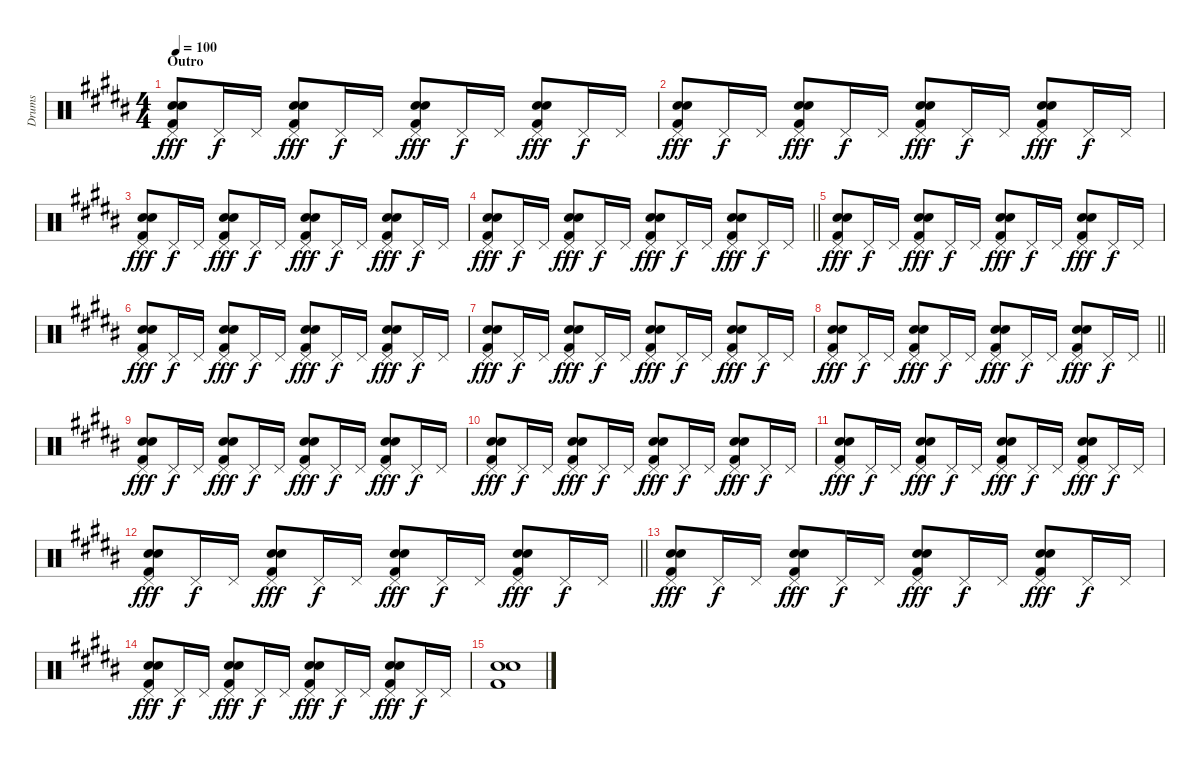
\track ("Drums" "Drums") {instrument percussion}
\staff {score}
\articulation defaults
\ts (4 4)
\section ("" "Outro")
\tempo 100
\clef neutral
\ks b
("Pedal Hi-Hat (hit)" "Snare (hit) 2" "Electric Snare (hit)" "Kick (hit) 2").8{dy fff} "Pedal Hi-Hat (hit)".16{dy f} "Pedal Hi-Hat (hit)".16 ("Pedal Hi-Hat (hit)" "Snare (hit) 2" "Electric Snare (hit)" "Kick (hit) 2").8{dy fff} "Pedal Hi-Hat (hit)".16{dy f} "Pedal Hi-Hat (hit)".16 ("Pedal Hi-Hat (hit)" "Snare (hit) 2" "Electric Snare (hit)" "Kick (hit) 2").8{dy fff} "Pedal Hi-Hat (hit)".16{dy f} "Pedal Hi-Hat (hit)".16 ("Pedal Hi-Hat (hit)" "Snare (hit) 2" "Electric Snare (hit)" "Kick (hit) 2").8{dy fff} "Pedal Hi-Hat (hit)".16{dy f} "Pedal Hi-Hat (hit)".16 |
("Pedal Hi-Hat (hit)" "Snare (hit) 2" "Electric Snare (hit)" "Kick (hit) 2").8{dy fff} "Pedal Hi-Hat (hit)".16{dy f} "Pedal Hi-Hat (hit)".16 ("Pedal Hi-Hat (hit)" "Snare (hit) 2" "Electric Snare (hit)" "Kick (hit) 2").8{dy fff} "Pedal Hi-Hat (hit)".16{dy f} "Pedal Hi-Hat (hit)".16 ("Pedal Hi-Hat (hit)" "Snare (hit) 2" "Electric Snare (hit)" "Kick (hit) 2").8{dy fff} "Pedal Hi-Hat (hit)".16{dy f} "Pedal Hi-Hat (hit)".16 ("Pedal Hi-Hat (hit)" "Snare (hit) 2" "Electric Snare (hit)" "Kick (hit) 2").8{dy fff} "Pedal Hi-Hat (hit)".16{dy f} "Pedal Hi-Hat (hit)".16 |
("Pedal Hi-Hat (hit)" "Snare (hit) 2" "Electric Snare (hit)" "Kick (hit) 2").8{dy fff} "Pedal Hi-Hat (hit)".16{dy f} "Pedal Hi-Hat (hit)".16 ("Pedal Hi-Hat (hit)" "Snare (hit) 2" "Electric Snare (hit)" "Kick (hit) 2").8{dy fff} "Pedal Hi-Hat (hit)".16{dy f} "Pedal Hi-Hat (hit)".16 ("Pedal Hi-Hat (hit)" "Snare (hit) 2" "Electric Snare (hit)" "Kick (hit) 2").8{dy fff} "Pedal Hi-Hat (hit)".16{dy f} "Pedal Hi-Hat (hit)".16 ("Pedal Hi-Hat (hit)" "Snare (hit) 2" "Electric Snare (hit)" "Kick (hit) 2").8{dy fff} "Pedal Hi-Hat (hit)".16{dy f} "Pedal Hi-Hat (hit)".16 |
\barLineRight lightlight
("Pedal Hi-Hat (hit)" "Snare (hit) 2" "Electric Snare (hit)" "Kick (hit) 2").8{dy fff} "Pedal Hi-Hat (hit)".16{dy f} "Pedal Hi-Hat (hit)".16 ("Pedal Hi-Hat (hit)" "Snare (hit) 2" "Electric Snare (hit)" "Kick (hit) 2").8{dy fff} "Pedal Hi-Hat (hit)".16{dy f} "Pedal Hi-Hat (hit)".16 ("Pedal Hi-Hat (hit)" "Snare (hit) 2" "Electric Snare (hit)" "Kick (hit) 2").8{dy fff} "Pedal Hi-Hat (hit)".16{dy f} "Pedal Hi-Hat (hit)".16 ("Pedal Hi-Hat (hit)" "Snare (hit) 2" "Electric Snare (hit)" "Kick (hit) 2").8{dy fff} "Pedal Hi-Hat (hit)".16{dy f} "Pedal Hi-Hat (hit)".16 |
("Pedal Hi-Hat (hit)" "Snare (hit) 2" "Electric Snare (hit)" "Kick (hit) 2").8{dy fff} "Pedal Hi-Hat (hit)".16{dy f} "Pedal Hi-Hat (hit)".16 ("Pedal Hi-Hat (hit)" "Snare (hit) 2" "Electric Snare (hit)" "Kick (hit) 2").8{dy fff} "Pedal Hi-Hat (hit)".16{dy f} "Pedal Hi-Hat (hit)".16 ("Pedal Hi-Hat (hit)" "Snare (hit) 2" "Electric Snare (hit)" "Kick (hit) 2").8{dy fff} "Pedal Hi-Hat (hit)".16{dy f} "Pedal Hi-Hat (hit)".16 ("Pedal Hi-Hat (hit)" "Snare (hit) 2" "Electric Snare (hit)" "Kick (hit) 2").8{dy fff} "Pedal Hi-Hat (hit)".16{dy f} "Pedal Hi-Hat (hit)".16 |
("Pedal Hi-Hat (hit)" "Snare (hit) 2" "Electric Snare (hit)" "Kick (hit) 2").8{dy fff} "Pedal Hi-Hat (hit)".16{dy f} "Pedal Hi-Hat (hit)".16 ("Pedal Hi-Hat (hit)" "Snare (hit) 2" "Electric Snare (hit)" "Kick (hit) 2").8{dy fff} "Pedal Hi-Hat (hit)".16{dy f} "Pedal Hi-Hat (hit)".16 ("Pedal Hi-Hat (hit)" "Snare (hit) 2" "Electric Snare (hit)" "Kick (hit) 2").8{dy fff} "Pedal Hi-Hat (hit)".16{dy f} "Pedal Hi-Hat (hit)".16 ("Pedal Hi-Hat (hit)" "Snare (hit) 2" "Electric Snare (hit)" "Kick (hit) 2").8{dy fff} "Pedal Hi-Hat (hit)".16{dy f} "Pedal Hi-Hat (hit)".16 |
("Pedal Hi-Hat (hit)" "Snare (hit) 2" "Electric Snare (hit)" "Kick (hit) 2").8{dy fff} "Pedal Hi-Hat (hit)".16{dy f} "Pedal Hi-Hat (hit)".16 ("Pedal Hi-Hat (hit)" "Snare (hit) 2" "Electric Snare (hit)" "Kick (hit) 2").8{dy fff} "Pedal Hi-Hat (hit)".16{dy f} "Pedal Hi-Hat (hit)".16 ("Pedal Hi-Hat (hit)" "Snare (hit) 2" "Electric Snare (hit)" "Kick (hit) 2").8{dy fff} "Pedal Hi-Hat (hit)".16{dy f} "Pedal Hi-Hat (hit)".16 ("Pedal Hi-Hat (hit)" "Snare (hit) 2" "Electric Snare (hit)" "Kick (hit) 2").8{dy fff} "Pedal Hi-Hat (hit)".16{dy f} "Pedal Hi-Hat (hit)".16 |
\barLineRight lightlight
("Pedal Hi-Hat (hit)" "Snare (hit) 2" "Electric Snare (hit)" "Kick (hit) 2").8{dy fff} "Pedal Hi-Hat (hit)".16{dy f} "Pedal Hi-Hat (hit)".16 ("Pedal Hi-Hat (hit)" "Snare (hit) 2" "Electric Snare (hit)" "Kick (hit) 2").8{dy fff} "Pedal Hi-Hat (hit)".16{dy f} "Pedal Hi-Hat (hit)".16 ("Pedal Hi-Hat (hit)" "Snare (hit) 2" "Electric Snare (hit)" "Kick (hit) 2").8{dy fff} "Pedal Hi-Hat (hit)".16{dy f} "Pedal Hi-Hat (hit)".16 ("Pedal Hi-Hat (hit)" "Snare (hit) 2" "Electric Snare (hit)" "Kick (hit) 2").8{dy fff} "Pedal Hi-Hat (hit)".16{dy f} "Pedal Hi-Hat (hit)".16 |
("Pedal Hi-Hat (hit)" "Snare (hit) 2" "Electric Snare (hit)" "Kick (hit) 2").8{dy fff} "Pedal Hi-Hat (hit)".16{dy f} "Pedal Hi-Hat (hit)".16 ("Pedal Hi-Hat (hit)" "Snare (hit) 2" "Electric Snare (hit)" "Kick (hit) 2").8{dy fff} "Pedal Hi-Hat (hit)".16{dy f} "Pedal Hi-Hat (hit)".16 ("Pedal Hi-Hat (hit)" "Snare (hit) 2" "Electric Snare (hit)" "Kick (hit) 2").8{dy fff} "Pedal Hi-Hat (hit)".16{dy f} "Pedal Hi-Hat (hit)".16 ("Pedal Hi-Hat (hit)" "Snare (hit) 2" "Electric Snare (hit)" "Kick (hit) 2").8{dy fff} "Pedal Hi-Hat (hit)".16{dy f} "Pedal Hi-Hat (hit)".16 |
("Pedal Hi-Hat (hit)" "Snare (hit) 2" "Electric Snare (hit)" "Kick (hit) 2").8{dy fff} "Pedal Hi-Hat (hit)".16{dy f} "Pedal Hi-Hat (hit)".16 ("Pedal Hi-Hat (hit)" "Snare (hit) 2" "Electric Snare (hit)" "Kick (hit) 2").8{dy fff} "Pedal Hi-Hat (hit)".16{dy f} "Pedal Hi-Hat (hit)".16 ("Pedal Hi-Hat (hit)" "Snare (hit) 2" "Electric Snare (hit)" "Kick (hit) 2").8{dy fff} "Pedal Hi-Hat (hit)".16{dy f} "Pedal Hi-Hat (hit)".16 ("Pedal Hi-Hat (hit)" "Snare (hit) 2" "Electric Snare (hit)" "Kick (hit) 2").8{dy fff} "Pedal Hi-Hat (hit)".16{dy f} "Pedal Hi-Hat (hit)".16 |
("Pedal Hi-Hat (hit)" "Snare (hit) 2" "Electric Snare (hit)" "Kick (hit) 2").8{dy fff} "Pedal Hi-Hat (hit)".16{dy f} "Pedal Hi-Hat (hit)".16 ("Pedal Hi-Hat (hit)" "Snare (hit) 2" "Electric Snare (hit)" "Kick (hit) 2").8{dy fff} "Pedal Hi-Hat (hit)".16{dy f} "Pedal Hi-Hat (hit)".16 ("Pedal Hi-Hat (hit)" "Snare (hit) 2" "Electric Snare (hit)" "Kick (hit) 2").8{dy fff} "Pedal Hi-Hat (hit)".16{dy f} "Pedal Hi-Hat (hit)".16 ("Pedal Hi-Hat (hit)" "Snare (hit) 2" "Electric Snare (hit)" "Kick (hit) 2").8{dy fff} "Pedal Hi-Hat (hit)".16{dy f} "Pedal Hi-Hat (hit)".16 |
\barLineRight lightlight
("Pedal Hi-Hat (hit)" "Snare (hit) 2" "Electric Snare (hit)" "Kick (hit) 2").8{dy fff} "Pedal Hi-Hat (hit)".16{dy f} "Pedal Hi-Hat (hit)".16 ("Pedal Hi-Hat (hit)" "Snare (hit) 2" "Electric Snare (hit)" "Kick (hit) 2").8{dy fff} "Pedal Hi-Hat (hit)".16{dy f} "Pedal Hi-Hat (hit)".16 ("Pedal Hi-Hat (hit)" "Snare (hit) 2" "Electric Snare (hit)" "Kick (hit) 2").8{dy fff} "Pedal Hi-Hat (hit)".16{dy f} "Pedal Hi-Hat (hit)".16 ("Pedal Hi-Hat (hit)" "Snare (hit) 2" "Electric Snare (hit)" "Kick (hit) 2").8{dy fff} "Pedal Hi-Hat (hit)".16{dy f} "Pedal Hi-Hat (hit)".16 |
("Pedal Hi-Hat (hit)" "Snare (hit) 2" "Electric Snare (hit)" "Kick (hit) 2").8{dy fff} "Pedal Hi-Hat (hit)".16{dy f} "Pedal Hi-Hat (hit)".16 ("Pedal Hi-Hat (hit)" "Snare (hit) 2" "Electric Snare (hit)" "Kick (hit) 2").8{dy fff} "Pedal Hi-Hat (hit)".16{dy f} "Pedal Hi-Hat (hit)".16 ("Pedal Hi-Hat (hit)" "Snare (hit) 2" "Electric Snare (hit)" "Kick (hit) 2").8{dy fff} "Pedal Hi-Hat (hit)".16{dy f} "Pedal Hi-Hat (hit)".16 ("Pedal Hi-Hat (hit)" "Snare (hit) 2" "Electric Snare (hit)" "Kick (hit) 2").8{dy fff} "Pedal Hi-Hat (hit)".16{dy f} "Pedal Hi-Hat (hit)".16 |
("Pedal Hi-Hat (hit)" "Snare (hit) 2" "Electric Snare (hit)" "Kick (hit) 2").8{dy fff} "Pedal Hi-Hat (hit)".16{dy f} "Pedal Hi-Hat (hit)".16 ("Pedal Hi-Hat (hit)" "Snare (hit) 2" "Electric Snare (hit)" "Kick (hit) 2").8{dy fff} "Pedal Hi-Hat (hit)".16{dy f} "Pedal Hi-Hat (hit)".16 ("Pedal Hi-Hat (hit)" "Snare (hit) 2" "Electric Snare (hit)" "Kick (hit) 2").8{dy fff} "Pedal Hi-Hat (hit)".16{dy f} "Pedal Hi-Hat (hit)".16 ("Pedal Hi-Hat (hit)" "Snare (hit) 2" "Electric Snare (hit)" "Kick (hit) 2").8{dy fff} "Pedal Hi-Hat (hit)".16{dy f} "Pedal Hi-Hat (hit)".16 |
("Snare (hit) 2" "Electric Snare (hit)" "Kick (hit) 2").1
